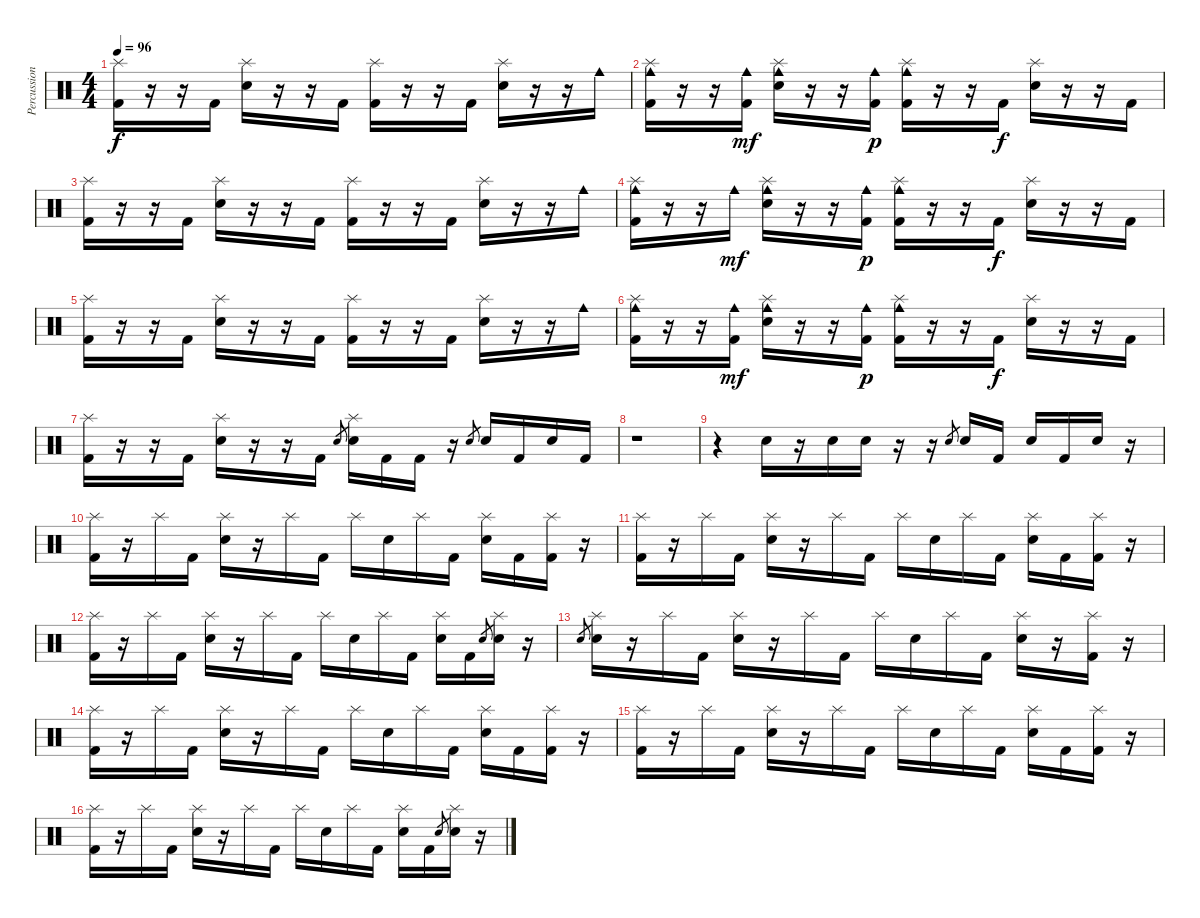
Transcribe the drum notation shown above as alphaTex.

\track ("Percussion" "Percussion") {instrument percussion}
\staff {score}
\articulation defaults
\ts (4 4)
\tempo 96
\clef neutral
\ks c
("Splash (hit)" "Kick (hit) 2").16{dy f} r.16 r.16 "Kick (hit) 2".16 ("Splash (hit)" "Snare (hit) 2").16 r.16 r.16 "Kick (hit) 2".16 ("Splash (hit)" "Kick (hit) 2").16 r.16 r.16 "Kick (hit) 2".16 ("Splash (hit)" "Snare (hit) 2").16 r.16 r.16 "Cowbell medium (hit)".16 |
("Splash (hit)" "Cowbell medium (hit)" "Kick (hit) 2").16 r.16 r.16 ("Cowbell medium (hit)" "Kick (hit) 2").16{dy mf} ("Splash (hit)" "Cowbell medium (hit)" "Snare (hit) 2").16 r.16 r.16 ("Cowbell medium (hit)" "Kick (hit) 2").16{dy p} ("Splash (hit)" "Cowbell medium (hit)" "Kick (hit) 2").16 r.16 r.16 "Kick (hit) 2".16{dy f} ("Splash (hit)" "Snare (hit) 2").16 r.16 r.16 "Kick (hit) 2".16 |
("Splash (hit)" "Kick (hit) 2").16 r.16 r.16 "Kick (hit) 2".16 ("Splash (hit)" "Snare (hit) 2").16 r.16 r.16 "Kick (hit) 2".16 ("Splash (hit)" "Kick (hit) 2").16 r.16 r.16 "Kick (hit) 2".16 ("Splash (hit)" "Snare (hit) 2").16 r.16 r.16 "Cowbell medium (hit)".16 |
("Splash (hit)" "Cowbell medium (hit)" "Kick (hit) 2").16 r.16 r.16 "Cowbell medium (hit)".16{dy mf} ("Splash (hit)" "Cowbell medium (hit)" "Snare (hit) 2").16 r.16 r.16 ("Cowbell medium (hit)" "Kick (hit) 2").16{dy p} ("Splash (hit)" "Cowbell medium (hit)" "Kick (hit) 2").16 r.16 r.16 "Kick (hit) 2".16{dy f} ("Splash (hit)" "Snare (hit) 2").16 r.16 r.16 "Kick (hit) 2".16 |
("Splash (hit)" "Kick (hit) 2").16 r.16 r.16 "Kick (hit) 2".16 ("Splash (hit)" "Snare (hit) 2").16 r.16 r.16 "Kick (hit) 2".16 ("Splash (hit)" "Kick (hit) 2").16 r.16 r.16 "Kick (hit) 2".16 ("Splash (hit)" "Snare (hit) 2").16 r.16 r.16 "Cowbell medium (hit)".16 |
("Splash (hit)" "Cowbell medium (hit)" "Kick (hit) 2").16 r.16 r.16 ("Cowbell medium (hit)" "Kick (hit) 2").16{dy mf} ("Splash (hit)" "Cowbell medium (hit)" "Snare (hit) 2").16 r.16 r.16 ("Cowbell medium (hit)" "Kick (hit) 2").16{dy p} ("Splash (hit)" "Cowbell medium (hit)" "Kick (hit) 2").16 r.16 r.16 "Kick (hit) 2".16{dy f} ("Splash (hit)" "Snare (hit) 2").16 r.16 r.16 "Kick (hit) 2".16 |
("Splash (hit)" "Kick (hit) 2").16 r.16 r.16 "Kick (hit) 2".16 ("Splash (hit)" "Snare (hit) 2").16 r.16 r.16 "Kick (hit) 2".16 "Snare (hit) 2".8{gr} ("Splash (hit)" "Snare (hit) 2").16 "Kick (hit) 2".16 "Kick (hit) 2".16 r.16 "Snare (hit) 2".8{gr} "Snare (hit) 2".16 "Kick (hit) 2".16 "Snare (hit) 2".16 "Kick (hit) 2".16 |
r.1 |
r.4 "Snare (hit) 2".16 r.16 "Snare (hit) 2".16 "Snare (hit) 2".16 r.16 r.16 "Snare (hit) 2".8{gr} "Snare (hit) 2".16 "Kick (hit) 2".16 "Snare (hit) 2".16 "Kick (hit) 2".16 "Snare (hit) 2".16 r.16 |
("Splash (hit)" "Kick (hit) 2").16 r.16 "Splash (hit)".16 "Kick (hit) 2".16 ("Splash (hit)" "Snare (hit) 2").16 r.16 "Splash (hit)".16 "Kick (hit) 2".16 "Splash (hit)".16 "Snare (hit) 2".16 "Splash (hit)".16 "Kick (hit) 2".16 ("Splash (hit)" "Snare (hit) 2").16 "Kick (hit) 2".16 ("Splash (hit)" "Kick (hit) 2").16 r.16 |
("Splash (hit)" "Kick (hit) 2").16 r.16 "Splash (hit)".16 "Kick (hit) 2".16 ("Splash (hit)" "Snare (hit) 2").16 r.16 "Splash (hit)".16 "Kick (hit) 2".16 "Splash (hit)".16 "Snare (hit) 2".16 "Splash (hit)".16 "Kick (hit) 2".16 ("Splash (hit)" "Snare (hit) 2").16 "Kick (hit) 2".16 ("Splash (hit)" "Kick (hit) 2").16 r.16 |
("Splash (hit)" "Kick (hit) 2").16 r.16 "Splash (hit)".16 "Kick (hit) 2".16 ("Splash (hit)" "Snare (hit) 2").16 r.16 "Splash (hit)".16 "Kick (hit) 2".16 "Splash (hit)".16 "Snare (hit) 2".16 "Splash (hit)".16 "Kick (hit) 2".16 ("Splash (hit)" "Snare (hit) 2").16 "Kick (hit) 2".16 "Snare (hit) 2".8{gr} ("Splash (hit)" "Snare (hit) 2").16 r.16 |
"Snare (hit) 2".8{gr} ("Splash (hit)" "Snare (hit) 2").16 r.16 "Splash (hit)".16 "Kick (hit) 2".16 ("Splash (hit)" "Snare (hit) 2").16 r.16 "Splash (hit)".16 "Kick (hit) 2".16 "Splash (hit)".16 "Snare (hit) 2".16 "Splash (hit)".16 "Kick (hit) 2".16 ("Splash (hit)" "Snare (hit) 2").16 r.16 ("Splash (hit)" "Kick (hit) 2").16 r.16 |
("Splash (hit)" "Kick (hit) 2").16 r.16 "Splash (hit)".16 "Kick (hit) 2".16 ("Splash (hit)" "Snare (hit) 2").16 r.16 "Splash (hit)".16 "Kick (hit) 2".16 "Splash (hit)".16 "Snare (hit) 2".16 "Splash (hit)".16 "Kick (hit) 2".16 ("Splash (hit)" "Snare (hit) 2").16 "Kick (hit) 2".16 ("Splash (hit)" "Kick (hit) 2").16 r.16 |
("Splash (hit)" "Kick (hit) 2").16 r.16 "Splash (hit)".16 "Kick (hit) 2".16 ("Splash (hit)" "Snare (hit) 2").16 r.16 "Splash (hit)".16 "Kick (hit) 2".16 "Splash (hit)".16 "Snare (hit) 2".16 "Splash (hit)".16 "Kick (hit) 2".16 ("Splash (hit)" "Snare (hit) 2").16 "Kick (hit) 2".16 ("Splash (hit)" "Kick (hit) 2").16 r.16 |
("Splash (hit)" "Kick (hit) 2").16 r.16 "Splash (hit)".16 "Kick (hit) 2".16 ("Splash (hit)" "Snare (hit) 2").16 r.16 "Splash (hit)".16 "Kick (hit) 2".16 "Splash (hit)".16 "Snare (hit) 2".16 "Splash (hit)".16 "Kick (hit) 2".16 ("Splash (hit)" "Snare (hit) 2").16 "Kick (hit) 2".16 "Snare (hit) 2".8{gr} ("Splash (hit)" "Snare (hit) 2").16 r.16
